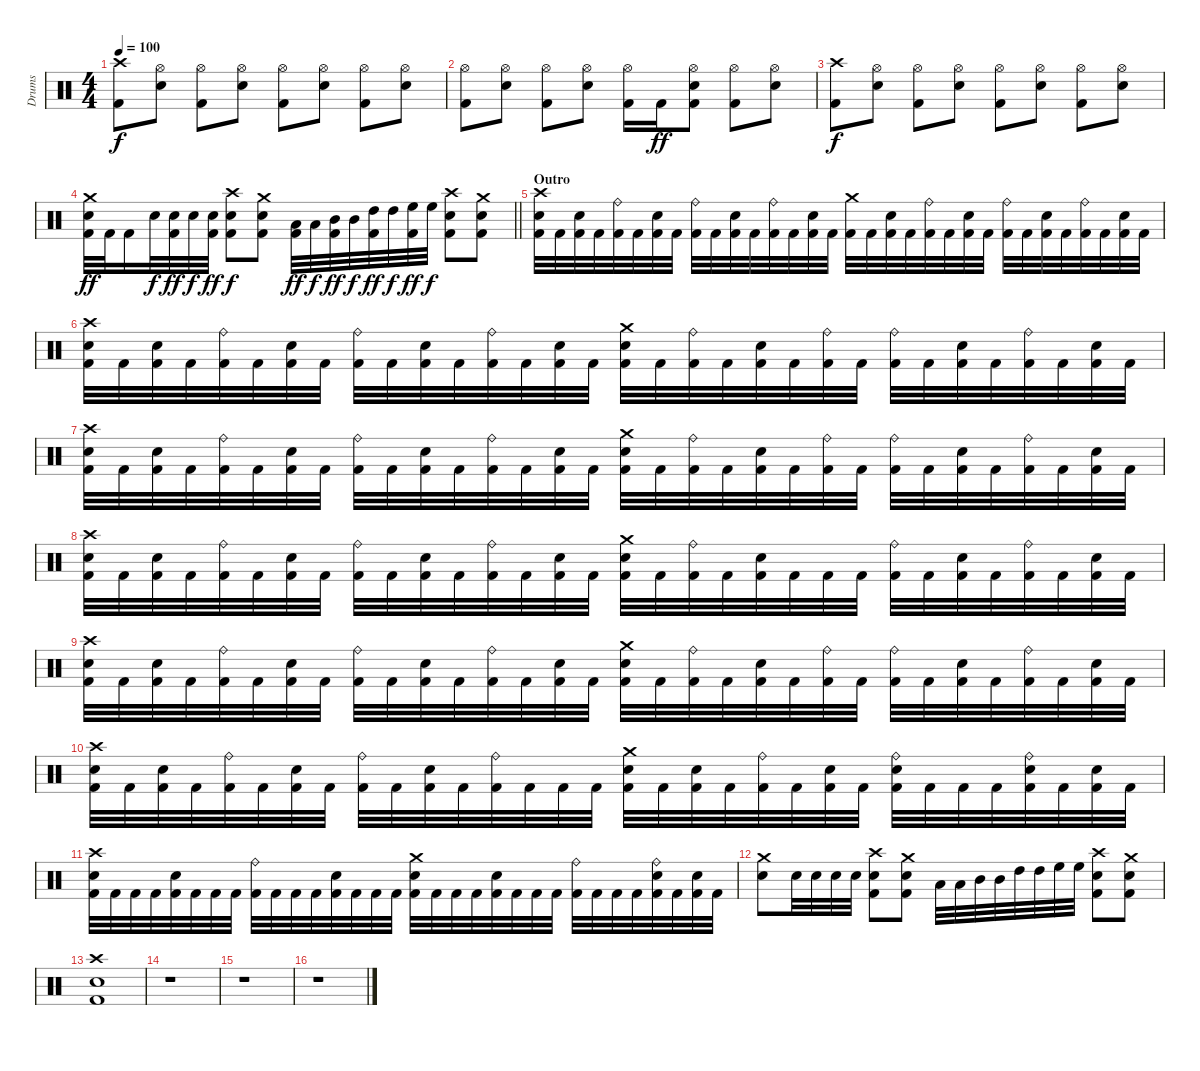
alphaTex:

\track ("Drums" "Drums") {instrument percussion}
\staff {score}
\articulation defaults
\ts (4 4)
\tempo 100
\clef neutral
\ks c
("Crash high (hit)" "Kick (hit) 2").8{dy f} ("Hi-Hat (open)" "Snare (hit) 2").8 ("Hi-Hat (open)" "Kick (hit) 2").8 ("Hi-Hat (open)" "Snare (hit) 2").8 ("Hi-Hat (open)" "Kick (hit) 2").8 ("Hi-Hat (open)" "Snare (hit) 2").8 ("Hi-Hat (open)" "Kick (hit) 2").8 ("Hi-Hat (open)" "Snare (hit) 2").8 |
("Hi-Hat (open)" "Kick (hit) 2").8 ("Hi-Hat (open)" "Snare (hit) 2").8 ("Hi-Hat (open)" "Kick (hit) 2").8 ("Hi-Hat (open)" "Snare (hit) 2").8 ("Hi-Hat (open)" "Kick (hit) 2").16 "Kick (hit) 2".16{dy ff} ("Hi-Hat (open)" "Snare (hit) 2" "Kick (hit) 2").8 ("Hi-Hat (open)" "Kick (hit) 2").8 ("Hi-Hat (open)" "Snare (hit) 2").8 |
("Crash high (hit)" "Kick (hit) 2").8{dy f} ("Hi-Hat (open)" "Snare (hit) 2").8 ("Hi-Hat (open)" "Kick (hit) 2").8 ("Hi-Hat (open)" "Snare (hit) 2").8 ("Hi-Hat (open)" "Kick (hit) 2").8 ("Hi-Hat (open)" "Snare (hit) 2").8 ("Hi-Hat (open)" "Kick (hit) 2").8 ("Hi-Hat (open)" "Snare (hit) 2").8 |
\barLineRight lightlight
("Crash medium (hit)" "Snare (hit) 2" "Kick (hit) 2").32{dy ff} "Kick (hit) 2".32 "Kick (hit) 2".16 "Snare (hit) 2".32{dy f} ("Snare (hit) 2" "Kick (hit) 2").32{dy ff} "Snare (hit) 2".32{dy f} ("Snare (hit) 2" "Kick (hit) 2").32{dy ff} ("Crash high (hit)" "Snare (hit) 2" "Kick (hit) 2").8{dy f} ("Crash medium (hit)" "Snare (hit) 2" "Kick (hit) 2").8 ("Low Tom (hit)" "Kick (hit) 2").32{dy ff} "Low Tom (hit)".32{dy f} ("Mid Tom (hit)" "Kick (hit) 2").32{dy ff} "Mid Tom (hit)".32{dy f} ("High Tom (hit)" "Kick (hit) 2").32{dy ff} "High Tom (hit)".32{dy f} ("High Floor Tom (hit)" "Kick (hit) 2").32{dy ff} "High Floor Tom (hit)".32{dy f} ("Crash high (hit)" "Snare (hit) 2" "Kick (hit) 2").8 ("Crash medium (hit)" "Snare (hit) 2" "Kick (hit) 2").8 |
\section ("" "Outro")
("Crash high (hit)" "Snare (hit) 2" "Kick (hit) 2").32 "Kick (hit) 2".32 ("Snare (hit) 2" "Kick (hit) 2").32 "Kick (hit) 2".32 ("Ride (bell)" "Kick (hit) 2").32 "Kick (hit) 2".32 ("Snare (hit) 2" "Kick (hit) 2").32 "Kick (hit) 2".32 ("Ride (bell)" "Kick (hit) 2").32 "Kick (hit) 2".32 ("Snare (hit) 2" "Kick (hit) 2").32 "Kick (hit) 2".32 ("Ride (bell)" "Kick (hit) 2").32 "Kick (hit) 2".32 ("Snare (hit) 2" "Kick (hit) 2").32 "Kick (hit) 2".32 ("Crash medium (hit)" "Kick (hit) 2").32 "Kick (hit) 2".32 ("Snare (hit) 2" "Kick (hit) 2").32 "Kick (hit) 2".32 ("Ride (bell)" "Kick (hit) 2").32 "Kick (hit) 2".32 ("Snare (hit) 2" "Kick (hit) 2").32 "Kick (hit) 2".32 ("Ride (bell)" "Kick (hit) 2").32 "Kick (hit) 2".32 ("Snare (hit) 2" "Kick (hit) 2").32 "Kick (hit) 2".32 ("Ride (bell)" "Kick (hit) 2").32 "Kick (hit) 2".32 ("Snare (hit) 2" "Kick (hit) 2").32 "Kick (hit) 2".32 |
("Crash high (hit)" "Snare (hit) 2" "Kick (hit) 2").32 "Kick (hit) 2".32 ("Snare (hit) 2" "Kick (hit) 2").32 "Kick (hit) 2".32 ("Ride (bell)" "Kick (hit) 2").32 "Kick (hit) 2".32 ("Snare (hit) 2" "Kick (hit) 2").32 "Kick (hit) 2".32 ("Ride (bell)" "Kick (hit) 2").32 "Kick (hit) 2".32 ("Snare (hit) 2" "Kick (hit) 2").32 "Kick (hit) 2".32 ("Ride (bell)" "Kick (hit) 2").32 "Kick (hit) 2".32 ("Snare (hit) 2" "Kick (hit) 2").32 "Kick (hit) 2".32 ("Crash medium (hit)" "Snare (hit) 2" "Kick (hit) 2").32 "Kick (hit) 2".32 ("Ride (bell)" "Kick (hit) 2").32 "Kick (hit) 2".32 ("Snare (hit) 2" "Kick (hit) 2").32 "Kick (hit) 2".32 ("Ride (bell)" "Kick (hit) 2").32 "Kick (hit) 2".32 ("Ride (bell)" "Kick (hit) 2").32 "Kick (hit) 2".32 ("Snare (hit) 2" "Kick (hit) 2").32 "Kick (hit) 2".32 ("Ride (bell)" "Kick (hit) 2").32 "Kick (hit) 2".32 ("Snare (hit) 2" "Kick (hit) 2").32 "Kick (hit) 2".32 |
("Crash high (hit)" "Snare (hit) 2" "Kick (hit) 2").32 "Kick (hit) 2".32 ("Snare (hit) 2" "Kick (hit) 2").32 "Kick (hit) 2".32 ("Ride (bell)" "Kick (hit) 2").32 "Kick (hit) 2".32 ("Snare (hit) 2" "Kick (hit) 2").32 "Kick (hit) 2".32 ("Ride (bell)" "Kick (hit) 2").32 "Kick (hit) 2".32 ("Snare (hit) 2" "Kick (hit) 2").32 "Kick (hit) 2".32 ("Ride (bell)" "Kick (hit) 2").32 "Kick (hit) 2".32 ("Snare (hit) 2" "Kick (hit) 2").32 "Kick (hit) 2".32 ("Crash medium (hit)" "Snare (hit) 2" "Kick (hit) 2").32 "Kick (hit) 2".32 ("Ride (bell)" "Kick (hit) 2").32 "Kick (hit) 2".32 ("Snare (hit) 2" "Kick (hit) 2").32 "Kick (hit) 2".32 ("Ride (bell)" "Kick (hit) 2").32 "Kick (hit) 2".32 ("Ride (bell)" "Kick (hit) 2").32 "Kick (hit) 2".32 ("Snare (hit) 2" "Kick (hit) 2").32 "Kick (hit) 2".32 ("Ride (bell)" "Kick (hit) 2").32 "Kick (hit) 2".32 ("Snare (hit) 2" "Kick (hit) 2").32 "Kick (hit) 2".32 |
("Crash high (hit)" "Snare (hit) 2" "Kick (hit) 2").32 "Kick (hit) 2".32 ("Snare (hit) 2" "Kick (hit) 2").32 "Kick (hit) 2".32 ("Ride (bell)" "Kick (hit) 2").32 "Kick (hit) 2".32 ("Snare (hit) 2" "Kick (hit) 2").32 "Kick (hit) 2".32 ("Ride (bell)" "Kick (hit) 2").32 "Kick (hit) 2".32 ("Snare (hit) 2" "Kick (hit) 2").32 "Kick (hit) 2".32 ("Ride (bell)" "Kick (hit) 2").32 "Kick (hit) 2".32 ("Snare (hit) 2" "Kick (hit) 2").32 "Kick (hit) 2".32 ("Crash medium (hit)" "Snare (hit) 2" "Kick (hit) 2").32 "Kick (hit) 2".32 ("Ride (bell)" "Kick (hit) 2").32 "Kick (hit) 2".32 ("Snare (hit) 2" "Kick (hit) 2").32 "Kick (hit) 2".32 "Kick (hit) 2".32 "Kick (hit) 2".32 ("Ride (bell)" "Kick (hit) 2").32 "Kick (hit) 2".32 ("Snare (hit) 2" "Kick (hit) 2").32 "Kick (hit) 2".32 ("Ride (bell)" "Kick (hit) 2").32 "Kick (hit) 2".32 ("Snare (hit) 2" "Kick (hit) 2").32 "Kick (hit) 2".32 |
("Crash high (hit)" "Snare (hit) 2" "Kick (hit) 2").32 "Kick (hit) 2".32 ("Snare (hit) 2" "Kick (hit) 2").32 "Kick (hit) 2".32 ("Ride (bell)" "Kick (hit) 2").32 "Kick (hit) 2".32 ("Snare (hit) 2" "Kick (hit) 2").32 "Kick (hit) 2".32 ("Ride (bell)" "Kick (hit) 2").32 "Kick (hit) 2".32 ("Snare (hit) 2" "Kick (hit) 2").32 "Kick (hit) 2".32 ("Ride (bell)" "Kick (hit) 2").32 "Kick (hit) 2".32 ("Snare (hit) 2" "Kick (hit) 2").32 "Kick (hit) 2".32 ("Crash medium (hit)" "Snare (hit) 2" "Kick (hit) 2").32 "Kick (hit) 2".32 ("Ride (bell)" "Kick (hit) 2").32 "Kick (hit) 2".32 ("Snare (hit) 2" "Kick (hit) 2").32 "Kick (hit) 2".32 ("Ride (bell)" "Kick (hit) 2").32 "Kick (hit) 2".32 ("Ride (bell)" "Kick (hit) 2").32 "Kick (hit) 2".32 ("Snare (hit) 2" "Kick (hit) 2").32 "Kick (hit) 2".32 ("Ride (bell)" "Kick (hit) 2").32 "Kick (hit) 2".32 ("Snare (hit) 2" "Kick (hit) 2").32 "Kick (hit) 2".32 |
("Crash high (hit)" "Snare (hit) 2" "Kick (hit) 2").32 "Kick (hit) 2".32 ("Snare (hit) 2" "Kick (hit) 2").32 "Kick (hit) 2".32 ("Ride (bell)" "Kick (hit) 2").32 "Kick (hit) 2".32 ("Snare (hit) 2" "Kick (hit) 2").32 "Kick (hit) 2".32 ("Ride (bell)" "Kick (hit) 2").32 "Kick (hit) 2".32 ("Snare (hit) 2" "Kick (hit) 2").32 "Kick (hit) 2".32 ("Ride (bell)" "Kick (hit) 2").32 "Kick (hit) 2".32 "Kick (hit) 2".32 "Kick (hit) 2".32 ("Crash medium (hit)" "Snare (hit) 2" "Kick (hit) 2").32 "Kick (hit) 2".32 ("Snare (hit) 2" "Kick (hit) 2").32 "Kick (hit) 2".32 ("Ride (bell)" "Kick (hit) 2").32 "Kick (hit) 2".32 ("Snare (hit) 2" "Kick (hit) 2").32 "Kick (hit) 2".32 ("Ride (bell)" "Snare (hit) 2" "Kick (hit) 2").32 "Kick (hit) 2".32 "Kick (hit) 2".32 "Kick (hit) 2".32 ("Ride (bell)" "Snare (hit) 2" "Kick (hit) 2").32 "Kick (hit) 2".32 ("Snare (hit) 2" "Kick (hit) 2").32 "Kick (hit) 2".32 |
("Crash high (hit)" "Snare (hit) 2" "Kick (hit) 2").32 "Kick (hit) 2".32 "Kick (hit) 2".32 "Kick (hit) 2".32 ("Snare (hit) 2" "Kick (hit) 2").32 "Kick (hit) 2".32 "Kick (hit) 2".32 "Kick (hit) 2".32 ("Ride (bell)" "Kick (hit) 2").32 "Kick (hit) 2".32 "Kick (hit) 2".32 "Kick (hit) 2".32 ("Snare (hit) 2" "Kick (hit) 2").32 "Kick (hit) 2".32 "Kick (hit) 2".32 "Kick (hit) 2".32 ("Crash medium (hit)" "Snare (hit) 2" "Kick (hit) 2").32 "Kick (hit) 2".32 "Kick (hit) 2".32 "Kick (hit) 2".32 ("Snare (hit) 2" "Kick (hit) 2").32 "Kick (hit) 2".32 "Kick (hit) 2".32 "Kick (hit) 2".32 ("Ride (bell)" "Kick (hit) 2").32 "Kick (hit) 2".32 "Kick (hit) 2".32 "Kick (hit) 2".32 ("Ride (bell)" "Snare (hit) 2" "Kick (hit) 2").32 "Kick (hit) 2".32 ("Snare (hit) 2" "Kick (hit) 2").32 "Kick (hit) 2".32 |
("Crash medium (hit)" "Snare (hit) 2").8 "Snare (hit) 2".32 "Snare (hit) 2".32 "Snare (hit) 2".32 "Snare (hit) 2".32 ("Crash high (hit)" "Snare (hit) 2" "Kick (hit) 2").8 ("Crash medium (hit)" "Snare (hit) 2" "Kick (hit) 2").8 "Low Tom (hit)".32 "Low Tom (hit)".32 "Mid Tom (hit)".32 "Mid Tom (hit)".32 "High Tom (hit)".32 "High Tom (hit)".32 "High Floor Tom (hit)".32 "High Floor Tom (hit)".32 ("Crash high (hit)" "Snare (hit) 2" "Kick (hit) 2").8 ("Crash medium (hit)" "Snare (hit) 2" "Kick (hit) 2").8 |
("Crash high (hit)" "Snare (hit) 2" "Kick (hit) 2").1 |
r.1 |
r.1 |
r.1
